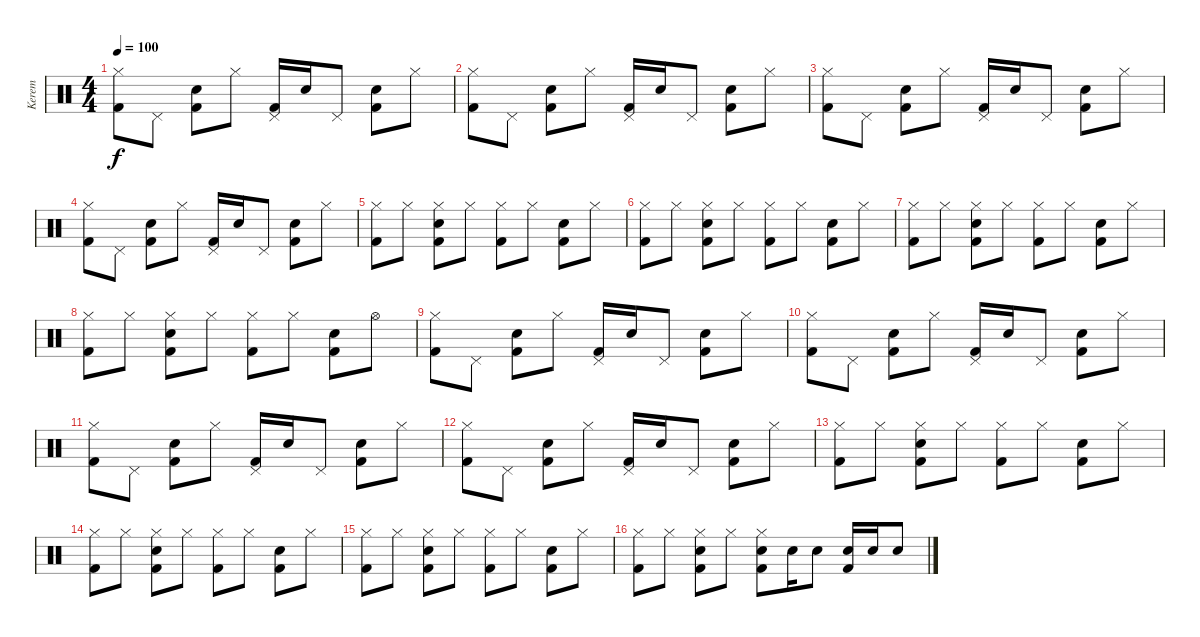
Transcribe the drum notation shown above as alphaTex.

\track ("Kerem" "Kerem") {instrument percussion}
\staff {score}
\articulation defaults
\ts (4 4)
\tempo 100
\clef neutral
\ks c
("Hi-Hat (closed)" "Kick (hit) 2").8{dy f} "Pedal Hi-Hat (hit)".8 ("Electric Snare (hit)" "Kick (hit) 2").8 "Hi-Hat (closed)".8 ("Pedal Hi-Hat (hit)" "Kick (hit) 2").16 "Electric Snare (hit)".16 "Pedal Hi-Hat (hit)".8 ("Electric Snare (hit)" "Kick (hit) 2").8 "Hi-Hat (closed)".8 |
("Hi-Hat (closed)" "Kick (hit) 2").8 "Pedal Hi-Hat (hit)".8 ("Electric Snare (hit)" "Kick (hit) 2").8 "Hi-Hat (closed)".8 ("Pedal Hi-Hat (hit)" "Kick (hit) 2").16 "Electric Snare (hit)".16 "Pedal Hi-Hat (hit)".8 ("Electric Snare (hit)" "Kick (hit) 2").8 "Hi-Hat (closed)".8 |
("Hi-Hat (closed)" "Kick (hit) 2").8 "Pedal Hi-Hat (hit)".8 ("Electric Snare (hit)" "Kick (hit) 2").8 "Hi-Hat (closed)".8 ("Pedal Hi-Hat (hit)" "Kick (hit) 2").16 "Electric Snare (hit)".16 "Pedal Hi-Hat (hit)".8 ("Electric Snare (hit)" "Kick (hit) 2").8 "Hi-Hat (closed)".8 |
("Hi-Hat (closed)" "Kick (hit) 2").8 "Pedal Hi-Hat (hit)".8 ("Electric Snare (hit)" "Kick (hit) 2").8 "Hi-Hat (closed)".8 ("Pedal Hi-Hat (hit)" "Kick (hit) 2").16 "Electric Snare (hit)".16 "Pedal Hi-Hat (hit)".8 ("Electric Snare (hit)" "Kick (hit) 2").8 "Hi-Hat (closed)".8 |
("Hi-Hat (closed)" "Kick (hit) 2").8 "Hi-Hat (closed)".8 ("Hi-Hat (closed)" "Electric Snare (hit)" "Kick (hit) 2").8 "Hi-Hat (closed)".8 ("Hi-Hat (closed)" "Kick (hit) 2").8 "Hi-Hat (closed)".8 ("Electric Snare (hit)" "Kick (hit) 2").8 "Hi-Hat (closed)".8 |
("Hi-Hat (closed)" "Kick (hit) 2").8 "Hi-Hat (closed)".8 ("Hi-Hat (closed)" "Electric Snare (hit)" "Kick (hit) 2").8 "Hi-Hat (closed)".8 ("Hi-Hat (closed)" "Kick (hit) 2").8 "Hi-Hat (closed)".8 ("Electric Snare (hit)" "Kick (hit) 2").8 "Hi-Hat (closed)".8 |
("Hi-Hat (closed)" "Kick (hit) 2").8 "Hi-Hat (closed)".8 ("Hi-Hat (closed)" "Electric Snare (hit)" "Kick (hit) 2").8 "Hi-Hat (closed)".8 ("Hi-Hat (closed)" "Kick (hit) 2").8 "Hi-Hat (closed)".8 ("Electric Snare (hit)" "Kick (hit) 2").8 "Hi-Hat (closed)".8 |
("Hi-Hat (closed)" "Kick (hit) 2").8 "Hi-Hat (closed)".8 ("Hi-Hat (closed)" "Electric Snare (hit)" "Kick (hit) 2").8 "Hi-Hat (closed)".8 ("Hi-Hat (closed)" "Kick (hit) 2").8 "Hi-Hat (closed)".8 ("Electric Snare (hit)" "Kick (hit) 2").8 "Hi-Hat (open)".8 |
("Hi-Hat (closed)" "Kick (hit) 2").8 "Pedal Hi-Hat (hit)".8 ("Electric Snare (hit)" "Kick (hit) 2").8 "Hi-Hat (closed)".8 ("Pedal Hi-Hat (hit)" "Kick (hit) 2").16 "Electric Snare (hit)".16 "Pedal Hi-Hat (hit)".8 ("Electric Snare (hit)" "Kick (hit) 2").8 "Hi-Hat (closed)".8 |
("Hi-Hat (closed)" "Kick (hit) 2").8 "Pedal Hi-Hat (hit)".8 ("Electric Snare (hit)" "Kick (hit) 2").8 "Hi-Hat (closed)".8 ("Pedal Hi-Hat (hit)" "Kick (hit) 2").16 "Electric Snare (hit)".16 "Pedal Hi-Hat (hit)".8 ("Electric Snare (hit)" "Kick (hit) 2").8 "Hi-Hat (closed)".8 |
("Hi-Hat (closed)" "Kick (hit) 2").8 "Pedal Hi-Hat (hit)".8 ("Electric Snare (hit)" "Kick (hit) 2").8 "Hi-Hat (closed)".8 ("Pedal Hi-Hat (hit)" "Kick (hit) 2").16 "Electric Snare (hit)".16 "Pedal Hi-Hat (hit)".8 ("Electric Snare (hit)" "Kick (hit) 2").8 "Hi-Hat (closed)".8 |
("Hi-Hat (closed)" "Kick (hit) 2").8 "Pedal Hi-Hat (hit)".8 ("Electric Snare (hit)" "Kick (hit) 2").8 "Hi-Hat (closed)".8 ("Pedal Hi-Hat (hit)" "Kick (hit) 2").16 "Electric Snare (hit)".16 "Pedal Hi-Hat (hit)".8 ("Electric Snare (hit)" "Kick (hit) 2").8 "Hi-Hat (closed)".8 |
("Hi-Hat (closed)" "Kick (hit) 2").8 "Hi-Hat (closed)".8 ("Hi-Hat (closed)" "Electric Snare (hit)" "Kick (hit) 2").8 "Hi-Hat (closed)".8 ("Hi-Hat (closed)" "Kick (hit) 2").8 "Hi-Hat (closed)".8 ("Electric Snare (hit)" "Kick (hit) 2").8 "Hi-Hat (closed)".8 |
("Hi-Hat (closed)" "Kick (hit) 2").8 "Hi-Hat (closed)".8 ("Hi-Hat (closed)" "Electric Snare (hit)" "Kick (hit) 2").8 "Hi-Hat (closed)".8 ("Hi-Hat (closed)" "Kick (hit) 2").8 "Hi-Hat (closed)".8 ("Electric Snare (hit)" "Kick (hit) 2").8 "Hi-Hat (closed)".8 |
("Hi-Hat (closed)" "Kick (hit) 2").8 "Hi-Hat (closed)".8 ("Hi-Hat (closed)" "Electric Snare (hit)" "Kick (hit) 2").8 "Hi-Hat (closed)".8 ("Hi-Hat (closed)" "Kick (hit) 2").8 "Hi-Hat (closed)".8 ("Electric Snare (hit)" "Kick (hit) 2").8 "Hi-Hat (closed)".8 |
("Hi-Hat (closed)" "Kick (hit) 2").8 "Hi-Hat (closed)".8 ("Hi-Hat (closed)" "Electric Snare (hit)" "Kick (hit) 2").8 "Hi-Hat (closed)".8 ("Hi-Hat (closed)" "Electric Snare (hit)" "Kick (hit) 2").8 "Electric Snare (hit)".16 "Electric Snare (hit)".8 ("Electric Snare (hit)" "Kick (hit) 2").16 "Electric Snare (hit)".16 "Electric Snare (hit)".8
